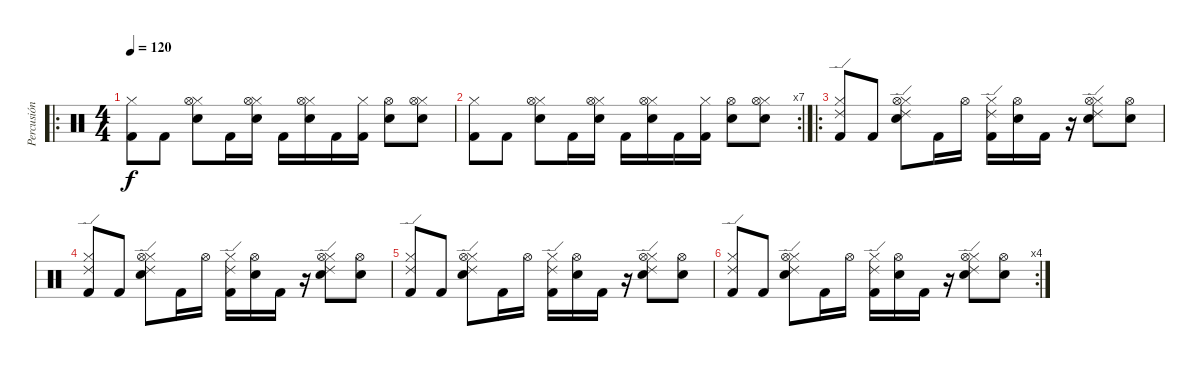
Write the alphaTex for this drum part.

\track ("Percusión" "Percusión") {instrument percussion}
\staff {score}
\articulation defaults
\ro
\ts (4 4)
\tempo 120
\clef neutral
\ks c
("Kick (hit) 2" "Hi-Hat (closed)").8{dy f} "Kick (hit) 2".8 ("Snare (hit) 2" "Hi-Hat (closed)" "Hi-Hat (open)").8 "Kick (hit) 2".16 ("Snare (hit) 2" "Hi-Hat (closed)" "Hi-Hat (open)").16 "Kick (hit) 2".16 ("Snare (hit) 2" "Hi-Hat (closed)" "Hi-Hat (open)").16 "Kick (hit) 2".16 ("Kick (hit) 2" "Hi-Hat (closed)").16 ("Snare (hit) 2" "Hi-Hat (open)").8 ("Snare (hit) 2" "Hi-Hat (closed)" "Hi-Hat (open)").8 |
\rc 7
("Kick (hit) 2" "Hi-Hat (closed)").8 "Kick (hit) 2".8 ("Snare (hit) 2" "Hi-Hat (closed)" "Hi-Hat (open)").8 "Kick (hit) 2".16 ("Snare (hit) 2" "Hi-Hat (closed)" "Hi-Hat (open)").16 "Kick (hit) 2".16 ("Snare (hit) 2" "Hi-Hat (closed)" "Hi-Hat (open)").16 "Kick (hit) 2".16 ("Kick (hit) 2" "Hi-Hat (closed)").16 ("Snare (hit) 2" "Hi-Hat (open)").8 ("Snare (hit) 2" "Hi-Hat (closed)" "Hi-Hat (open)").8 |
\ro
("Kick (hit) 2" "Hi-Hat (closed)" "Ride (edge) 2").8 "Kick (hit) 2".8 ("Snare (hit) 2" "Hi-Hat (closed)" "Hi-Hat (open)" "Ride (edge) 2").8 "Kick (hit) 2".16 "Hi-Hat (open)".16 ("Hi-Hat (closed)" "Kick (hit) 2" "Ride (edge) 2").16 ("Snare (hit) 2" "Hi-Hat (open)").16 "Kick (hit) 2".16 r.16 ("Snare (hit) 2" "Hi-Hat (closed)" "Hi-Hat (open)" "Ride (edge) 2").8 ("Snare (hit) 2" "Hi-Hat (open)").8 |
("Kick (hit) 2" "Hi-Hat (closed)" "Ride (edge) 2").8 "Kick (hit) 2".8 ("Snare (hit) 2" "Hi-Hat (closed)" "Hi-Hat (open)" "Ride (edge) 2").8 "Kick (hit) 2".16 "Hi-Hat (open)".16 ("Hi-Hat (closed)" "Kick (hit) 2" "Ride (edge) 2").16 ("Snare (hit) 2" "Hi-Hat (open)").16 "Kick (hit) 2".16 r.16 ("Snare (hit) 2" "Hi-Hat (closed)" "Hi-Hat (open)" "Ride (edge) 2").8 ("Snare (hit) 2" "Hi-Hat (open)").8 |
("Kick (hit) 2" "Hi-Hat (closed)" "Ride (edge) 2").8 "Kick (hit) 2".8 ("Snare (hit) 2" "Hi-Hat (closed)" "Hi-Hat (open)" "Ride (edge) 2").8 "Kick (hit) 2".16 "Hi-Hat (open)".16 ("Hi-Hat (closed)" "Kick (hit) 2" "Ride (edge) 2").16 ("Snare (hit) 2" "Hi-Hat (open)").16 "Kick (hit) 2".16 r.16 ("Snare (hit) 2" "Hi-Hat (closed)" "Hi-Hat (open)" "Ride (edge) 2").8 ("Snare (hit) 2" "Hi-Hat (open)").8 |
\rc 4
("Kick (hit) 2" "Hi-Hat (closed)" "Ride (edge) 2").8 "Kick (hit) 2".8 ("Snare (hit) 2" "Hi-Hat (closed)" "Hi-Hat (open)" "Ride (edge) 2").8 "Kick (hit) 2".16 "Hi-Hat (open)".16 ("Hi-Hat (closed)" "Kick (hit) 2" "Ride (edge) 2").16 ("Snare (hit) 2" "Hi-Hat (open)").16 "Kick (hit) 2".16 r.16 ("Snare (hit) 2" "Hi-Hat (closed)" "Hi-Hat (open)" "Ride (edge) 2").8 ("Snare (hit) 2" "Hi-Hat (open)").8
